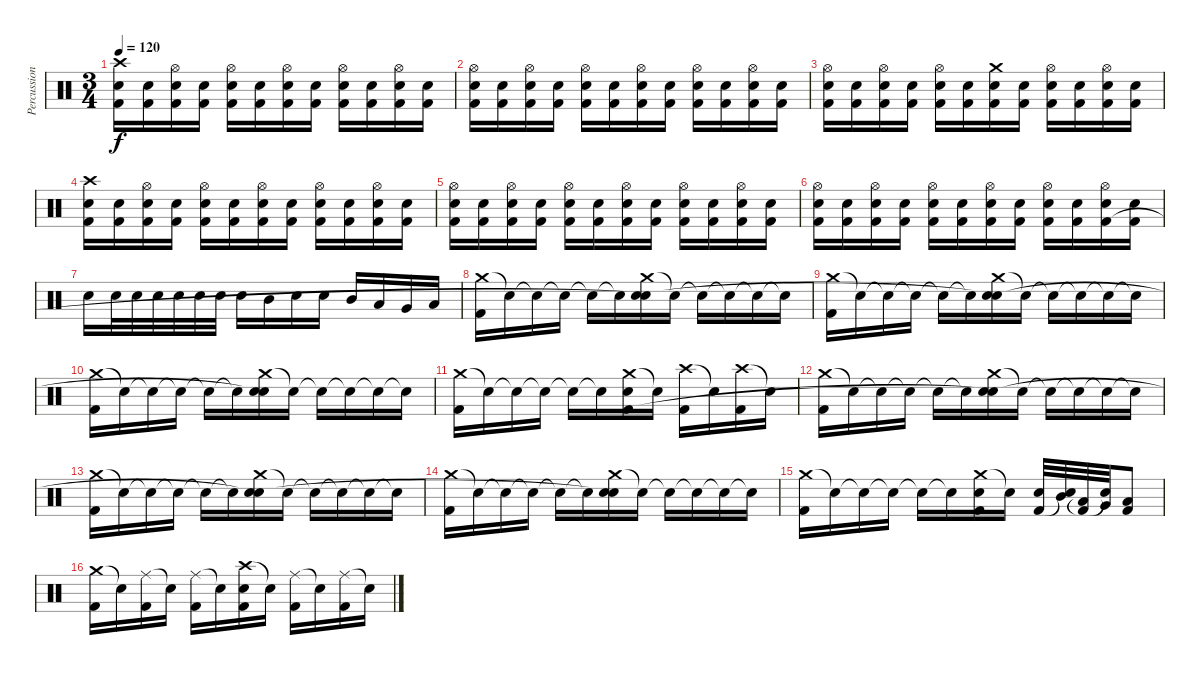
\track ("Percussions" "Percussion") {instrument percussion}
\staff {score}
\articulation defaults
\ts (3 4)
\tempo 120
\clef neutral
\ks c
("Crash high (hit)" "Electric Snare (hit)" "Kick (hit) 2").16{dy f} ("Electric Snare (hit)" "Kick (hit) 2").16 ("Hi-Hat (open)" "Electric Snare (hit)" "Kick (hit) 2").16 ("Electric Snare (hit)" "Kick (hit) 2").16 ("Hi-Hat (open)" "Electric Snare (hit)" "Kick (hit) 2").16 ("Electric Snare (hit)" "Kick (hit) 2").16 ("Hi-Hat (open)" "Electric Snare (hit)" "Kick (hit) 2").16 ("Electric Snare (hit)" "Kick (hit) 2").16 ("Hi-Hat (open)" "Electric Snare (hit)" "Kick (hit) 2").16 ("Electric Snare (hit)" "Kick (hit) 2").16 ("Hi-Hat (open)" "Electric Snare (hit)" "Kick (hit) 2").16 ("Electric Snare (hit)" "Kick (hit) 2").16 |
("Hi-Hat (open)" "Electric Snare (hit)" "Kick (hit) 2").16 ("Electric Snare (hit)" "Kick (hit) 2").16 ("Hi-Hat (open)" "Electric Snare (hit)" "Kick (hit) 2").16 ("Electric Snare (hit)" "Kick (hit) 2").16 ("Hi-Hat (open)" "Electric Snare (hit)" "Kick (hit) 2").16 ("Electric Snare (hit)" "Kick (hit) 2").16 ("Hi-Hat (open)" "Electric Snare (hit)" "Kick (hit) 2").16 ("Electric Snare (hit)" "Kick (hit) 2").16 ("Hi-Hat (open)" "Electric Snare (hit)" "Kick (hit) 2").16 ("Electric Snare (hit)" "Kick (hit) 2").16 ("Hi-Hat (open)" "Electric Snare (hit)" "Kick (hit) 2").16 ("Electric Snare (hit)" "Kick (hit) 2").16 |
("Hi-Hat (open)" "Electric Snare (hit)" "Kick (hit) 2").16 ("Electric Snare (hit)" "Kick (hit) 2").16 ("Hi-Hat (open)" "Electric Snare (hit)" "Kick (hit) 2").16 ("Electric Snare (hit)" "Kick (hit) 2").16 ("Hi-Hat (open)" "Electric Snare (hit)" "Kick (hit) 2").16 ("Electric Snare (hit)" "Kick (hit) 2").16 ("Crash medium (hit)" "Electric Snare (hit)" "Kick (hit) 2").16 ("Electric Snare (hit)" "Kick (hit) 2").16 ("Hi-Hat (open)" "Electric Snare (hit)" "Kick (hit) 2").16 ("Electric Snare (hit)" "Kick (hit) 2").16 ("Hi-Hat (open)" "Electric Snare (hit)" "Kick (hit) 2").16 ("Electric Snare (hit)" "Kick (hit) 2").16 |
("Crash high (hit)" "Electric Snare (hit)" "Kick (hit) 2").16 ("Electric Snare (hit)" "Kick (hit) 2").16 ("Hi-Hat (open)" "Electric Snare (hit)" "Kick (hit) 2").16 ("Electric Snare (hit)" "Kick (hit) 2").16 ("Hi-Hat (open)" "Electric Snare (hit)" "Kick (hit) 2").16 ("Electric Snare (hit)" "Kick (hit) 2").16 ("Hi-Hat (open)" "Electric Snare (hit)" "Kick (hit) 2").16 ("Electric Snare (hit)" "Kick (hit) 2").16 ("Hi-Hat (open)" "Electric Snare (hit)" "Kick (hit) 2").16 ("Electric Snare (hit)" "Kick (hit) 2").16 ("Hi-Hat (open)" "Electric Snare (hit)" "Kick (hit) 2").16 ("Electric Snare (hit)" "Kick (hit) 2").16 |
("Hi-Hat (open)" "Electric Snare (hit)" "Kick (hit) 2").16 ("Electric Snare (hit)" "Kick (hit) 2").16 ("Hi-Hat (open)" "Electric Snare (hit)" "Kick (hit) 2").16 ("Electric Snare (hit)" "Kick (hit) 2").16 ("Hi-Hat (open)" "Electric Snare (hit)" "Kick (hit) 2").16 ("Electric Snare (hit)" "Kick (hit) 2").16 ("Hi-Hat (open)" "Electric Snare (hit)" "Kick (hit) 2").16 ("Electric Snare (hit)" "Kick (hit) 2").16 ("Hi-Hat (open)" "Electric Snare (hit)" "Kick (hit) 2").16 ("Electric Snare (hit)" "Kick (hit) 2").16 ("Hi-Hat (open)" "Electric Snare (hit)" "Kick (hit) 2").16 ("Electric Snare (hit)" "Kick (hit) 2").16 |
("Hi-Hat (open)" "Electric Snare (hit)" "Kick (hit) 2").16 ("Electric Snare (hit)" "Kick (hit) 2").16 ("Hi-Hat (open)" "Electric Snare (hit)" "Kick (hit) 2").16 ("Electric Snare (hit)" "Kick (hit) 2").16 ("Hi-Hat (open)" "Electric Snare (hit)" "Kick (hit) 2").16 ("Electric Snare (hit)" "Kick (hit) 2").16 ("Hi-Hat (open)" "Electric Snare (hit)" "Kick (hit) 2").16 ("Electric Snare (hit)" "Kick (hit) 2").16 ("Hi-Hat (open)" "Electric Snare (hit)" "Kick (hit) 2").16 ("Electric Snare (hit)" "Kick (hit) 2").16 ("Hi-Hat (open)" "Electric Snare (hit)" "Kick (hit) 2").16 ("Electric Snare (hit)" "Kick (hit) 2").16 |
"Electric Snare (hit)".16 "Electric Snare (hit)".32 "Electric Snare (hit)".32 "Electric Snare (hit)".32 "Electric Snare (hit)".32 "Electric Snare (hit)".32 "Electric Snare (hit)".32 "Electric Snare (hit)".16 "Mid Tom (hit)".16 "Electric Snare (hit)".16 "Electric Snare (hit)".16 "Mid Tom (hit)".16 "Low Tom (hit)".16 "Very Low Tom (hit)".16 "Low Floor Tom (hit)".16 |
("Crash medium (hit)" "Kick (hit) 2").16 "Snare (hit)"{t}.16 "Snare (hit)"{t}.16 "Snare (hit)"{t}.16 "Snare (hit)"{t}.16 "Snare (hit)"{t}.16 ("Crash medium (hit)" "Electric Snare (hit)" "Snare (hit)"{t}).16 "Snare (hit)"{t}.16 "Snare (hit)"{t}.16 "Snare (hit)"{t}.16 "Snare (hit)"{t}.16 "Snare (hit)"{t}.16 |
("Crash medium (hit)" "Kick (hit) 2").16 "Snare (hit)"{t}.16 "Snare (hit)"{t}.16 "Snare (hit)"{t}.16 "Snare (hit)"{t}.16 "Snare (hit)"{t}.16 ("Crash medium (hit)" "Electric Snare (hit)" "Snare (hit)"{t}).16 "Snare (hit)"{t}.16 "Snare (hit)"{t}.16 "Snare (hit)"{t}.16 "Snare (hit)"{t}.16 "Snare (hit)"{t}.16 |
("Crash medium (hit)" "Kick (hit) 2").16 "Snare (hit)"{t}.16 "Snare (hit)"{t}.16 "Snare (hit)"{t}.16 "Snare (hit)"{t}.16 "Snare (hit)"{t}.16 ("Crash medium (hit)" "Electric Snare (hit)" "Snare (hit)"{t}).16 "Snare (hit)"{t}.16 "Snare (hit)"{t}.16 "Snare (hit)"{t}.16 "Snare (hit)"{t}.16 "Snare (hit)"{t}.16 |
("Crash medium (hit)" "Kick (hit) 2").16 "Snare (hit)"{t}.16 "Snare (hit)"{t}.16 "Snare (hit)"{t}.16 "Snare (hit)"{t}.16 "Snare (hit)"{t}.16 ("Crash medium (hit)" "Electric Snare (hit)" "Kick (hit) 2").16 "Snare (hit)"{t}.16 ("Crash high (hit)" "Kick (hit) 2").16 "Snare (hit)"{t}.16 ("Crash high (hit)" "Kick (hit) 2").16 "Snare (hit)"{t}.16 |
("Crash medium (hit)" "Kick (hit) 2").16 "Snare (hit)"{t}.16 "Snare (hit)"{t}.16 "Snare (hit)"{t}.16 "Snare (hit)"{t}.16 "Snare (hit)"{t}.16 ("Crash medium (hit)" "Electric Snare (hit)" "Snare (hit)"{t}).16 "Snare (hit)"{t}.16 "Snare (hit)"{t}.16 "Snare (hit)"{t}.16 "Snare (hit)"{t}.16 "Snare (hit)"{t}.16 |
("Crash medium (hit)" "Kick (hit) 2").16 "Snare (hit)"{t}.16 "Snare (hit)"{t}.16 "Snare (hit)"{t}.16 "Snare (hit)"{t}.16 "Snare (hit)"{t}.16 ("Crash medium (hit)" "Electric Snare (hit)" "Snare (hit)"{t}).16 "Snare (hit)"{t}.16 "Snare (hit)"{t}.16 "Snare (hit)"{t}.16 "Snare (hit)"{t}.16 "Snare (hit)"{t}.16 |
("Crash medium (hit)" "Kick (hit) 2").16 "Snare (hit)"{t}.16 "Snare (hit)"{t}.16 "Snare (hit)"{t}.16 "Snare (hit)"{t}.16 "Snare (hit)"{t}.16 ("Crash medium (hit)" "Electric Snare (hit)" "Snare (hit)"{t}).16 "Snare (hit)"{t}.16 "Snare (hit)"{t}.16 "Snare (hit)"{t}.16 "Snare (hit)"{t}.16 "Snare (hit)"{t}.16 |
("Crash medium (hit)" "Kick (hit) 2").16 "Snare (hit)"{t}.16 "Snare (hit)"{t}.16 "Snare (hit)"{t}.16 "Snare (hit)"{t}.16 "Snare (hit)"{t}.16 ("Crash medium (hit)" "Electric Snare (hit)" "Kick (hit) 2").16 "Snare (hit)"{t}.16 ("Electric Snare (hit)" "Kick (hit) 2").32 ("Mid Tom (hit)" "Snare (hit)"{t}).32 ("Low Tom (hit)" "Kick (hit) 2"{t}).32 ("Very Low Tom (hit)" "Snare (hit)"{t}).32 ("Low Floor Tom (hit)" "Kick (hit) 2").8 |
("Crash medium (hit)" "Kick (hit) 2").16 "Snare (hit)"{t}.16 ("Ride (middle)" "Kick (hit) 2").16 "Snare (hit)"{t}.16 ("Ride (middle)" "Kick (hit) 2").16 "Snare (hit)"{t}.16 ("Crash high (hit)" "Electric Snare (hit)" "Kick (hit) 2").16 "Snare (hit)"{t}.16 ("Ride (middle)" "Kick (hit) 2").16 "Snare (hit)"{t}.16 ("Ride (middle)" "Kick (hit) 2").16 "Snare (hit)"{t}.16
